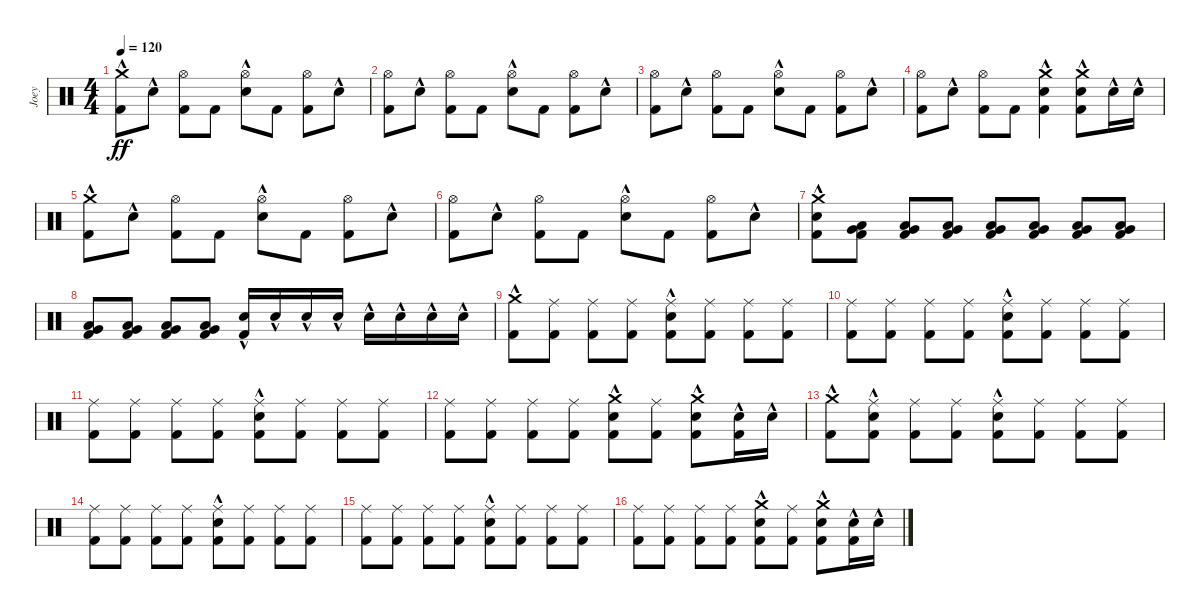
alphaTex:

\track ("Joey" "Joey") {instrument percussion}
\staff {score}
\articulation defaults
\ts (4 4)
\tempo 120
\clef neutral
\ks c
("Crash medium (hit)"{hac} "Kick (hit) 2").8{dy ff} "Snare (hit) 2"{hac}.8 ("Hi-Hat (open)" "Kick (hit) 2").8 "Kick (hit) 2".8 ("Hi-Hat (open)" "Snare (hit) 2"{hac}).8 "Kick (hit) 2".8 ("Hi-Hat (open)" "Kick (hit) 2").8 "Snare (hit) 2"{hac}.8 |
("Hi-Hat (open)" "Kick (hit) 2").8 "Snare (hit) 2"{hac}.8 ("Hi-Hat (open)" "Kick (hit) 2").8 "Kick (hit) 2".8 ("Hi-Hat (open)" "Snare (hit) 2"{hac}).8 "Kick (hit) 2".8 ("Hi-Hat (open)" "Kick (hit) 2").8 "Snare (hit) 2"{hac}.8 |
("Hi-Hat (open)" "Kick (hit) 2").8 "Snare (hit) 2"{hac}.8 ("Hi-Hat (open)" "Kick (hit) 2").8 "Kick (hit) 2".8 ("Hi-Hat (open)" "Snare (hit) 2"{hac}).8 "Kick (hit) 2".8 ("Hi-Hat (open)" "Kick (hit) 2").8 "Snare (hit) 2"{hac}.8 |
("Hi-Hat (open)" "Kick (hit) 2").8 "Snare (hit) 2"{hac}.8 ("Hi-Hat (open)" "Kick (hit) 2").8 "Kick (hit) 2".8 ("Crash medium (hit)" "Snare (hit) 2"{hac} "Kick (hit) 2").4 ("Crash medium (hit)" "Snare (hit) 2"{hac} "Kick (hit) 2").8 "Snare (hit) 2"{hac}.16 "Snare (hit) 2"{hac}.16 |
("Crash medium (hit)"{hac} "Kick (hit) 2").8 "Snare (hit) 2"{hac}.8 ("Hi-Hat (open)" "Kick (hit) 2").8 "Kick (hit) 2".8 ("Hi-Hat (open)" "Snare (hit) 2"{hac}).8 "Kick (hit) 2".8 ("Hi-Hat (open)" "Kick (hit) 2").8 "Snare (hit) 2"{hac}.8 |
("Hi-Hat (open)" "Kick (hit) 2").8 "Snare (hit) 2"{hac}.8 ("Hi-Hat (open)" "Kick (hit) 2").8 "Kick (hit) 2".8 ("Hi-Hat (open)" "Snare (hit) 2"{hac}).8 "Kick (hit) 2".8 ("Hi-Hat (open)" "Kick (hit) 2").8 "Snare (hit) 2"{hac}.8 |
("Crash medium (hit)" "Snare (hit) 2"{hac} "Kick (hit) 2").8 ("Very Low Tom (hit)" "Low Floor Tom (hit)" "Kick (hit) 2").8 ("Very Low Tom (hit)" "Low Floor Tom (hit)" "Kick (hit) 2").8 ("Very Low Tom (hit)" "Low Floor Tom (hit)" "Kick (hit) 2").8 ("Very Low Tom (hit)" "Low Floor Tom (hit)" "Kick (hit) 2").8 ("Very Low Tom (hit)" "Low Floor Tom (hit)" "Kick (hit) 2").8 ("Very Low Tom (hit)" "Low Floor Tom (hit)" "Kick (hit) 2").8 ("Very Low Tom (hit)" "Low Floor Tom (hit)" "Kick (hit) 2").8 |
("Very Low Tom (hit)" "Low Floor Tom (hit)" "Kick (hit) 2").8 ("Very Low Tom (hit)" "Low Floor Tom (hit)" "Kick (hit) 2").8 ("Very Low Tom (hit)" "Low Floor Tom (hit)" "Kick (hit) 2").8 ("Very Low Tom (hit)" "Low Floor Tom (hit)" "Kick (hit) 2").8 ("Snare (hit) 2"{hac} "Kick (hit) 2").16 "Snare (hit) 2"{hac}.16 "Snare (hit) 2"{hac}.16 "Snare (hit) 2"{hac}.16 "Snare (hit) 2"{hac}.16 "Snare (hit) 2"{hac}.16 "Snare (hit) 2"{hac}.16 "Snare (hit) 2"{hac}.16 |
("Crash medium (hit)"{hac} "Kick (hit) 2").8 ("Ride (middle)" "Kick (hit) 2").8 ("Ride (middle)" "Kick (hit) 2").8 ("Ride (middle)" "Kick (hit) 2").8 ("Ride (middle)" "Snare (hit) 2"{hac} "Kick (hit) 2").8 ("Ride (middle)" "Kick (hit) 2").8 ("Ride (middle)" "Kick (hit) 2").8 ("Ride (middle)" "Kick (hit) 2").8 |
("Ride (middle)" "Kick (hit) 2").8 ("Ride (middle)" "Kick (hit) 2").8 ("Ride (middle)" "Kick (hit) 2").8 ("Ride (middle)" "Kick (hit) 2").8 ("Ride (middle)" "Snare (hit) 2"{hac} "Kick (hit) 2").8 ("Ride (middle)" "Kick (hit) 2").8 ("Ride (middle)" "Kick (hit) 2").8 ("Ride (middle)" "Kick (hit) 2").8 |
("Ride (middle)" "Kick (hit) 2").8 ("Ride (middle)" "Kick (hit) 2").8 ("Ride (middle)" "Kick (hit) 2").8 ("Ride (middle)" "Kick (hit) 2").8 ("Ride (middle)" "Snare (hit) 2"{hac} "Kick (hit) 2").8 ("Ride (middle)" "Kick (hit) 2").8 ("Ride (middle)" "Kick (hit) 2").8 ("Ride (middle)" "Kick (hit) 2").8 |
("Ride (middle)" "Kick (hit) 2").8 ("Ride (middle)" "Kick (hit) 2").8 ("Ride (middle)" "Kick (hit) 2").8 ("Ride (middle)" "Kick (hit) 2").8 ("Crash medium (hit)" "Snare (hit) 2"{hac} "Kick (hit) 2").8 ("Ride (middle)" "Kick (hit) 2").8 ("Crash medium (hit)" "Snare (hit) 2"{hac} "Kick (hit) 2").8 ("Snare (hit) 2"{hac} "Kick (hit) 2").16 "Snare (hit) 2"{hac}.16 |
("Crash medium (hit)"{hac} "Kick (hit) 2").8 ("Ride (middle)" "Snare (hit) 2"{hac} "Kick (hit) 2").8 ("Ride (middle)" "Kick (hit) 2").8 ("Ride (middle)" "Kick (hit) 2").8 ("Ride (middle)" "Snare (hit) 2"{hac} "Kick (hit) 2").8 ("Ride (middle)" "Kick (hit) 2").8 ("Ride (middle)" "Kick (hit) 2").8 ("Ride (middle)" "Kick (hit) 2").8 |
("Ride (middle)" "Kick (hit) 2").8 ("Ride (middle)" "Kick (hit) 2").8 ("Ride (middle)" "Kick (hit) 2").8 ("Ride (middle)" "Kick (hit) 2").8 ("Ride (middle)" "Snare (hit) 2"{hac} "Kick (hit) 2").8 ("Ride (middle)" "Kick (hit) 2").8 ("Ride (middle)" "Kick (hit) 2").8 ("Ride (middle)" "Kick (hit) 2").8 |
("Ride (middle)" "Kick (hit) 2").8 ("Ride (middle)" "Kick (hit) 2").8 ("Ride (middle)" "Kick (hit) 2").8 ("Ride (middle)" "Kick (hit) 2").8 ("Ride (middle)" "Snare (hit) 2"{hac} "Kick (hit) 2").8 ("Ride (middle)" "Kick (hit) 2").8 ("Ride (middle)" "Kick (hit) 2").8 ("Ride (middle)" "Kick (hit) 2").8 |
("Ride (middle)" "Kick (hit) 2").8 ("Ride (middle)" "Kick (hit) 2").8 ("Ride (middle)" "Kick (hit) 2").8 ("Ride (middle)" "Kick (hit) 2").8 ("Crash medium (hit)" "Snare (hit) 2"{hac} "Kick (hit) 2").8 ("Ride (middle)" "Kick (hit) 2").8 ("Crash medium (hit)" "Snare (hit) 2"{hac} "Kick (hit) 2").8 ("Snare (hit) 2"{hac} "Kick (hit) 2").16 "Snare (hit) 2"{hac}.16
